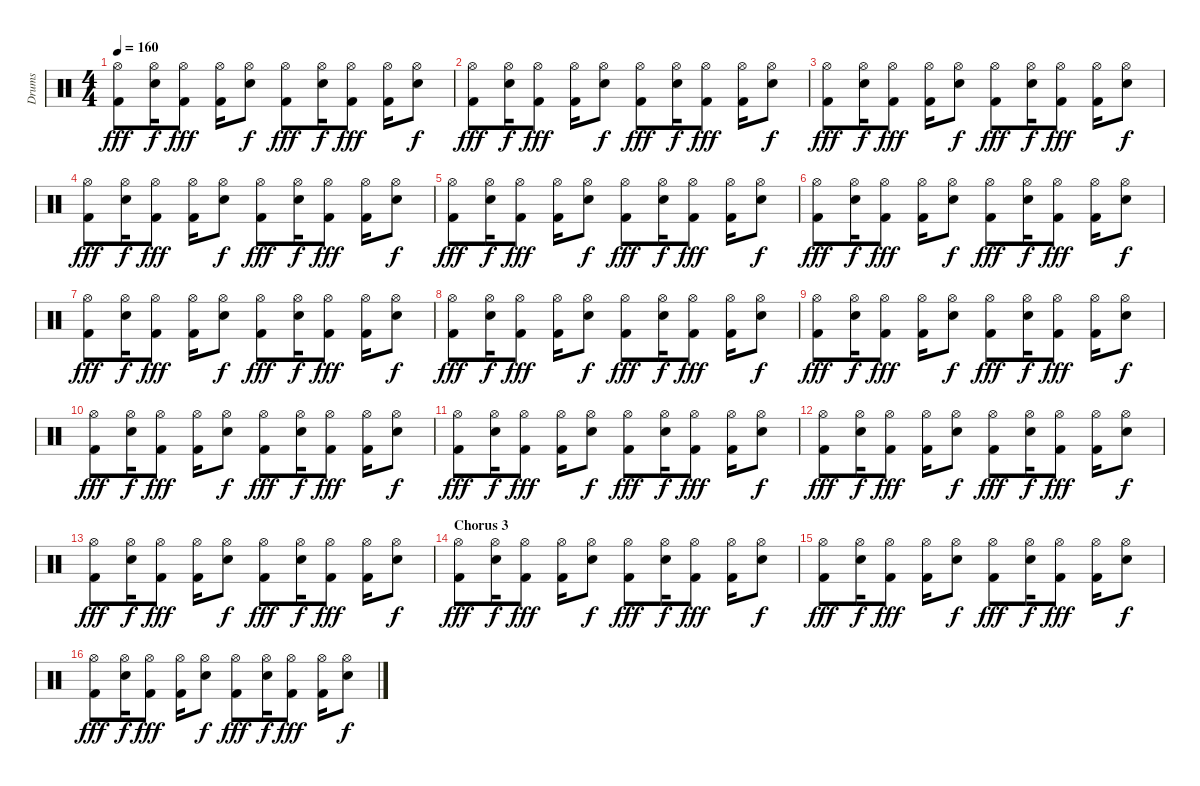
\track ("Drums" "Drums") {instrument percussion}
\staff {score}
\articulation defaults
\ts (4 4)
\tempo 160
\clef neutral
\ks c
("Hi-Hat (open)" "Kick (hit) 2").8{dy fff} ("Hi-Hat (open)" "Electric Snare (hit)").16{dy f} ("Hi-Hat (open)" "Kick (hit) 2").8{dy fff} ("Hi-Hat (open)" "Kick (hit) 2").16 ("Hi-Hat (open)" "Electric Snare (hit)").8{dy f} ("Hi-Hat (open)" "Kick (hit) 2").8{dy fff} ("Hi-Hat (open)" "Electric Snare (hit)").16{dy f} ("Hi-Hat (open)" "Kick (hit) 2").8{dy fff} ("Hi-Hat (open)" "Kick (hit) 2").16 ("Hi-Hat (open)" "Electric Snare (hit)").8{dy f} |
("Hi-Hat (open)" "Kick (hit) 2").8{dy fff} ("Hi-Hat (open)" "Electric Snare (hit)").16{dy f} ("Hi-Hat (open)" "Kick (hit) 2").8{dy fff} ("Hi-Hat (open)" "Kick (hit) 2").16 ("Hi-Hat (open)" "Electric Snare (hit)").8{dy f} ("Hi-Hat (open)" "Kick (hit) 2").8{dy fff} ("Hi-Hat (open)" "Electric Snare (hit)").16{dy f} ("Hi-Hat (open)" "Kick (hit) 2").8{dy fff} ("Hi-Hat (open)" "Kick (hit) 2").16 ("Hi-Hat (open)" "Electric Snare (hit)").8{dy f} |
("Hi-Hat (open)" "Kick (hit) 2").8{dy fff} ("Hi-Hat (open)" "Electric Snare (hit)").16{dy f} ("Hi-Hat (open)" "Kick (hit) 2").8{dy fff} ("Hi-Hat (open)" "Kick (hit) 2").16 ("Hi-Hat (open)" "Electric Snare (hit)").8{dy f} ("Hi-Hat (open)" "Kick (hit) 2").8{dy fff} ("Hi-Hat (open)" "Electric Snare (hit)").16{dy f} ("Hi-Hat (open)" "Kick (hit) 2").8{dy fff} ("Hi-Hat (open)" "Kick (hit) 2").16 ("Hi-Hat (open)" "Electric Snare (hit)").8{dy f} |
("Hi-Hat (open)" "Kick (hit) 2").8{dy fff} ("Hi-Hat (open)" "Electric Snare (hit)").16{dy f} ("Hi-Hat (open)" "Kick (hit) 2").8{dy fff} ("Hi-Hat (open)" "Kick (hit) 2").16 ("Hi-Hat (open)" "Electric Snare (hit)").8{dy f} ("Hi-Hat (open)" "Kick (hit) 2").8{dy fff} ("Hi-Hat (open)" "Electric Snare (hit)").16{dy f} ("Hi-Hat (open)" "Kick (hit) 2").8{dy fff} ("Hi-Hat (open)" "Kick (hit) 2").16 ("Hi-Hat (open)" "Electric Snare (hit)").8{dy f} |
("Hi-Hat (open)" "Kick (hit) 2").8{dy fff} ("Hi-Hat (open)" "Electric Snare (hit)").16{dy f} ("Hi-Hat (open)" "Kick (hit) 2").8{dy fff} ("Hi-Hat (open)" "Kick (hit) 2").16 ("Hi-Hat (open)" "Electric Snare (hit)").8{dy f} ("Hi-Hat (open)" "Kick (hit) 2").8{dy fff} ("Hi-Hat (open)" "Electric Snare (hit)").16{dy f} ("Hi-Hat (open)" "Kick (hit) 2").8{dy fff} ("Hi-Hat (open)" "Kick (hit) 2").16 ("Hi-Hat (open)" "Electric Snare (hit)").8{dy f} |
("Hi-Hat (open)" "Kick (hit) 2").8{dy fff} ("Hi-Hat (open)" "Electric Snare (hit)").16{dy f} ("Hi-Hat (open)" "Kick (hit) 2").8{dy fff} ("Hi-Hat (open)" "Kick (hit) 2").16 ("Hi-Hat (open)" "Electric Snare (hit)").8{dy f} ("Hi-Hat (open)" "Kick (hit) 2").8{dy fff} ("Hi-Hat (open)" "Electric Snare (hit)").16{dy f} ("Hi-Hat (open)" "Kick (hit) 2").8{dy fff} ("Hi-Hat (open)" "Kick (hit) 2").16 ("Hi-Hat (open)" "Electric Snare (hit)").8{dy f} |
("Hi-Hat (open)" "Kick (hit) 2").8{dy fff} ("Hi-Hat (open)" "Electric Snare (hit)").16{dy f} ("Hi-Hat (open)" "Kick (hit) 2").8{dy fff} ("Hi-Hat (open)" "Kick (hit) 2").16 ("Hi-Hat (open)" "Electric Snare (hit)").8{dy f} ("Hi-Hat (open)" "Kick (hit) 2").8{dy fff} ("Hi-Hat (open)" "Electric Snare (hit)").16{dy f} ("Hi-Hat (open)" "Kick (hit) 2").8{dy fff} ("Hi-Hat (open)" "Kick (hit) 2").16 ("Hi-Hat (open)" "Electric Snare (hit)").8{dy f} |
("Hi-Hat (open)" "Kick (hit) 2").8{dy fff} ("Hi-Hat (open)" "Electric Snare (hit)").16{dy f} ("Hi-Hat (open)" "Kick (hit) 2").8{dy fff} ("Hi-Hat (open)" "Kick (hit) 2").16 ("Hi-Hat (open)" "Electric Snare (hit)").8{dy f} ("Hi-Hat (open)" "Kick (hit) 2").8{dy fff} ("Hi-Hat (open)" "Electric Snare (hit)").16{dy f} ("Hi-Hat (open)" "Kick (hit) 2").8{dy fff} ("Hi-Hat (open)" "Kick (hit) 2").16 ("Hi-Hat (open)" "Electric Snare (hit)").8{dy f} |
("Hi-Hat (open)" "Kick (hit) 2").8{dy fff} ("Hi-Hat (open)" "Electric Snare (hit)").16{dy f} ("Hi-Hat (open)" "Kick (hit) 2").8{dy fff} ("Hi-Hat (open)" "Kick (hit) 2").16 ("Hi-Hat (open)" "Electric Snare (hit)").8{dy f} ("Hi-Hat (open)" "Kick (hit) 2").8{dy fff} ("Hi-Hat (open)" "Electric Snare (hit)").16{dy f} ("Hi-Hat (open)" "Kick (hit) 2").8{dy fff} ("Hi-Hat (open)" "Kick (hit) 2").16 ("Hi-Hat (open)" "Electric Snare (hit)").8{dy f} |
("Hi-Hat (open)" "Kick (hit) 2").8{dy fff} ("Hi-Hat (open)" "Electric Snare (hit)").16{dy f} ("Hi-Hat (open)" "Kick (hit) 2").8{dy fff} ("Hi-Hat (open)" "Kick (hit) 2").16 ("Hi-Hat (open)" "Electric Snare (hit)").8{dy f} ("Hi-Hat (open)" "Kick (hit) 2").8{dy fff} ("Hi-Hat (open)" "Electric Snare (hit)").16{dy f} ("Hi-Hat (open)" "Kick (hit) 2").8{dy fff} ("Hi-Hat (open)" "Kick (hit) 2").16 ("Hi-Hat (open)" "Electric Snare (hit)").8{dy f} |
("Hi-Hat (open)" "Kick (hit) 2").8{dy fff} ("Hi-Hat (open)" "Electric Snare (hit)").16{dy f} ("Hi-Hat (open)" "Kick (hit) 2").8{dy fff} ("Hi-Hat (open)" "Kick (hit) 2").16 ("Hi-Hat (open)" "Electric Snare (hit)").8{dy f} ("Hi-Hat (open)" "Kick (hit) 2").8{dy fff} ("Hi-Hat (open)" "Electric Snare (hit)").16{dy f} ("Hi-Hat (open)" "Kick (hit) 2").8{dy fff} ("Hi-Hat (open)" "Kick (hit) 2").16 ("Hi-Hat (open)" "Electric Snare (hit)").8{dy f} |
("Hi-Hat (open)" "Kick (hit) 2").8{dy fff} ("Hi-Hat (open)" "Electric Snare (hit)").16{dy f} ("Hi-Hat (open)" "Kick (hit) 2").8{dy fff} ("Hi-Hat (open)" "Kick (hit) 2").16 ("Hi-Hat (open)" "Electric Snare (hit)").8{dy f} ("Hi-Hat (open)" "Kick (hit) 2").8{dy fff} ("Hi-Hat (open)" "Electric Snare (hit)").16{dy f} ("Hi-Hat (open)" "Kick (hit) 2").8{dy fff} ("Hi-Hat (open)" "Kick (hit) 2").16 ("Hi-Hat (open)" "Electric Snare (hit)").8{dy f} |
("Hi-Hat (open)" "Kick (hit) 2").8{dy fff} ("Hi-Hat (open)" "Electric Snare (hit)").16{dy f} ("Hi-Hat (open)" "Kick (hit) 2").8{dy fff} ("Hi-Hat (open)" "Kick (hit) 2").16 ("Hi-Hat (open)" "Electric Snare (hit)").8{dy f} ("Hi-Hat (open)" "Kick (hit) 2").8{dy fff} ("Hi-Hat (open)" "Electric Snare (hit)").16{dy f} ("Hi-Hat (open)" "Kick (hit) 2").8{dy fff} ("Hi-Hat (open)" "Kick (hit) 2").16 ("Hi-Hat (open)" "Electric Snare (hit)").8{dy f} |
\section ("" "Chorus 3")
("Hi-Hat (open)" "Kick (hit) 2").8{dy fff} ("Hi-Hat (open)" "Electric Snare (hit)").16{dy f} ("Hi-Hat (open)" "Kick (hit) 2").8{dy fff} ("Hi-Hat (open)" "Kick (hit) 2").16 ("Hi-Hat (open)" "Electric Snare (hit)").8{dy f} ("Hi-Hat (open)" "Kick (hit) 2").8{dy fff} ("Hi-Hat (open)" "Electric Snare (hit)").16{dy f} ("Hi-Hat (open)" "Kick (hit) 2").8{dy fff} ("Hi-Hat (open)" "Kick (hit) 2").16 ("Hi-Hat (open)" "Electric Snare (hit)").8{dy f} |
("Hi-Hat (open)" "Kick (hit) 2").8{dy fff} ("Hi-Hat (open)" "Electric Snare (hit)").16{dy f} ("Hi-Hat (open)" "Kick (hit) 2").8{dy fff} ("Hi-Hat (open)" "Kick (hit) 2").16 ("Hi-Hat (open)" "Electric Snare (hit)").8{dy f} ("Hi-Hat (open)" "Kick (hit) 2").8{dy fff} ("Hi-Hat (open)" "Electric Snare (hit)").16{dy f} ("Hi-Hat (open)" "Kick (hit) 2").8{dy fff} ("Hi-Hat (open)" "Kick (hit) 2").16 ("Hi-Hat (open)" "Electric Snare (hit)").8{dy f} |
("Hi-Hat (open)" "Kick (hit) 2").8{dy fff} ("Hi-Hat (open)" "Electric Snare (hit)").16{dy f} ("Hi-Hat (open)" "Kick (hit) 2").8{dy fff} ("Hi-Hat (open)" "Kick (hit) 2").16 ("Hi-Hat (open)" "Electric Snare (hit)").8{dy f} ("Hi-Hat (open)" "Kick (hit) 2").8{dy fff} ("Hi-Hat (open)" "Electric Snare (hit)").16{dy f} ("Hi-Hat (open)" "Kick (hit) 2").8{dy fff} ("Hi-Hat (open)" "Kick (hit) 2").16 ("Hi-Hat (open)" "Electric Snare (hit)").8{dy f}
